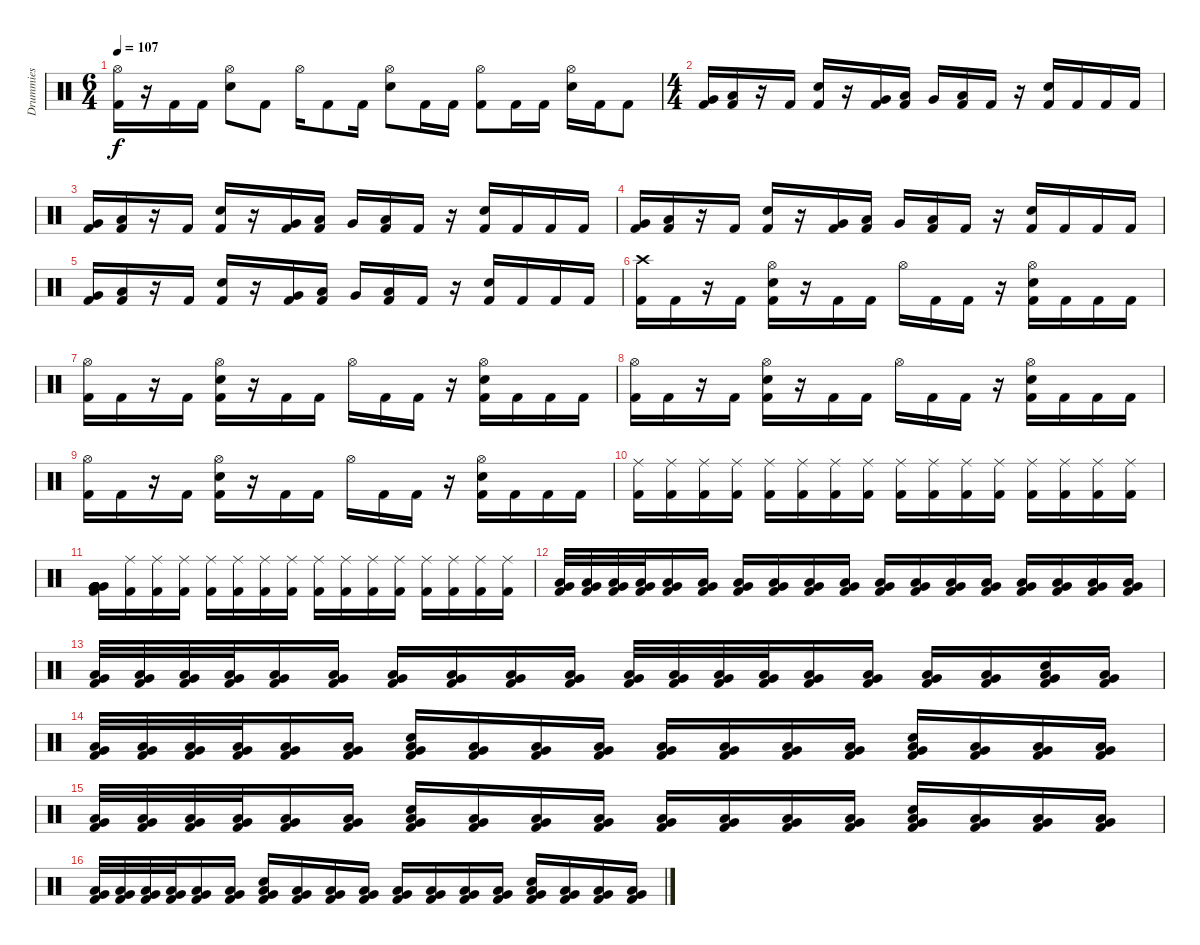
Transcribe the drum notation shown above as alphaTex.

\track ("Drummies" "Drummies") {instrument percussion}
\staff {score}
\articulation defaults
\ts (6 4)
\tempo 107
\clef neutral
\ks c
("Hi-Hat (open)" "Kick (hit) 2").16{dy f} r.16 "Kick (hit) 2".16 "Kick (hit) 2".16 ("Hi-Hat (open)" "Electric Snare (hit)").8 "Kick (hit) 2".8 "Hi-Hat (open)".16 "Kick (hit) 2".8 "Kick (hit) 2".16 ("Hi-Hat (open)" "Electric Snare (hit)").8 "Kick (hit) 2".16 "Kick (hit) 2".16 ("Hi-Hat (open)" "Kick (hit) 2").8 "Kick (hit) 2".16 "Kick (hit) 2".16 ("Hi-Hat (open)" "Electric Snare (hit)").16 "Kick (hit) 2".16 "Kick (hit) 2".8 |
\ts (4 4)
("Very Low Tom (hit)" "Kick (hit) 2").16 ("Low Tom (hit)" "Kick (hit) 2").16 r.16 "Kick (hit) 2".16 ("Electric Snare (hit)" "Kick (hit) 2").16 r.16 ("Very Low Tom (hit)" "Kick (hit) 2").16 ("Low Tom (hit)" "Kick (hit) 2").16 "Very Low Tom (hit)".16 ("Low Floor Tom (hit)" "Kick (hit) 2").16 "Kick (hit) 2".16 r.16 ("Electric Snare (hit)" "Kick (hit) 2").16 "Kick (hit) 2".16 "Kick (hit) 2".16 "Kick (hit) 2".16 |
("Very Low Tom (hit)" "Kick (hit) 2").16 ("Low Tom (hit)" "Kick (hit) 2").16 r.16 "Kick (hit) 2".16 ("Electric Snare (hit)" "Kick (hit) 2").16 r.16 ("Very Low Tom (hit)" "Kick (hit) 2").16 ("Low Tom (hit)" "Kick (hit) 2").16 "Very Low Tom (hit)".16 ("Low Floor Tom (hit)" "Kick (hit) 2").16 "Kick (hit) 2".16 r.16 ("Electric Snare (hit)" "Kick (hit) 2").16 "Kick (hit) 2".16 "Kick (hit) 2".16 "Kick (hit) 2".16 |
("Very Low Tom (hit)" "Kick (hit) 2").16 ("Low Tom (hit)" "Kick (hit) 2").16 r.16 "Kick (hit) 2".16 ("Electric Snare (hit)" "Kick (hit) 2").16 r.16 ("Very Low Tom (hit)" "Kick (hit) 2").16 ("Low Tom (hit)" "Kick (hit) 2").16 "Very Low Tom (hit)".16 ("Low Floor Tom (hit)" "Kick (hit) 2").16 "Kick (hit) 2".16 r.16 ("Electric Snare (hit)" "Kick (hit) 2").16 "Kick (hit) 2".16 "Kick (hit) 2".16 "Kick (hit) 2".16 |
("Very Low Tom (hit)" "Kick (hit) 2").16 ("Low Tom (hit)" "Kick (hit) 2").16 r.16 "Kick (hit) 2".16 ("Electric Snare (hit)" "Kick (hit) 2").16 r.16 ("Very Low Tom (hit)" "Kick (hit) 2").16 ("Low Tom (hit)" "Kick (hit) 2").16 "Very Low Tom (hit)".16 ("Low Floor Tom (hit)" "Kick (hit) 2").16 "Kick (hit) 2".16 r.16 ("Electric Snare (hit)" "Kick (hit) 2").16 "Kick (hit) 2".16 "Kick (hit) 2".16 "Kick (hit) 2".16 |
("Crash high (hit)" "Kick (hit) 2").16 "Kick (hit) 2".16 r.16 "Kick (hit) 2".16 ("Hi-Hat (open)" "Electric Snare (hit)" "Kick (hit) 2").16 r.16 "Kick (hit) 2".16 "Kick (hit) 2".16 "Hi-Hat (open)".16 "Kick (hit) 2".16 "Kick (hit) 2".16 r.16 ("Hi-Hat (open)" "Electric Snare (hit)" "Kick (hit) 2").16 "Kick (hit) 2".16 "Kick (hit) 2".16 "Kick (hit) 2".16 |
("Hi-Hat (open)" "Kick (hit) 2").16 "Kick (hit) 2".16 r.16 "Kick (hit) 2".16 ("Hi-Hat (open)" "Electric Snare (hit)" "Kick (hit) 2").16 r.16 "Kick (hit) 2".16 "Kick (hit) 2".16 "Hi-Hat (open)".16 "Kick (hit) 2".16 "Kick (hit) 2".16 r.16 ("Hi-Hat (open)" "Electric Snare (hit)" "Kick (hit) 2").16 "Kick (hit) 2".16 "Kick (hit) 2".16 "Kick (hit) 2".16 |
("Hi-Hat (open)" "Kick (hit) 2").16 "Kick (hit) 2".16 r.16 "Kick (hit) 2".16 ("Hi-Hat (open)" "Electric Snare (hit)" "Kick (hit) 2").16 r.16 "Kick (hit) 2".16 "Kick (hit) 2".16 "Hi-Hat (open)".16 "Kick (hit) 2".16 "Kick (hit) 2".16 r.16 ("Hi-Hat (open)" "Electric Snare (hit)" "Kick (hit) 2").16 "Kick (hit) 2".16 "Kick (hit) 2".16 "Kick (hit) 2".16 |
("Hi-Hat (open)" "Kick (hit) 2").16 "Kick (hit) 2".16 r.16 "Kick (hit) 2".16 ("Hi-Hat (open)" "Electric Snare (hit)" "Kick (hit) 2").16 r.16 "Kick (hit) 2".16 "Kick (hit) 2".16 "Hi-Hat (open)".16 "Kick (hit) 2".16 "Kick (hit) 2".16 r.16 ("Hi-Hat (open)" "Electric Snare (hit)" "Kick (hit) 2").16 "Kick (hit) 2".16 "Kick (hit) 2".16 "Kick (hit) 2".16 |
("Ride (middle)" "Kick (hit) 2").16 ("Ride (middle)" "Kick (hit) 2").16 ("Ride (middle)" "Kick (hit) 2").16 ("Ride (middle)" "Kick (hit) 2").16 ("Ride (middle)" "Kick (hit) 2").16 ("Ride (middle)" "Kick (hit) 2").16 ("Ride (middle)" "Kick (hit) 2").16 ("Ride (middle)" "Kick (hit) 2").16 ("Ride (middle)" "Kick (hit) 2").16 ("Ride (middle)" "Kick (hit) 2").16 ("Ride (middle)" "Kick (hit) 2").16 ("Ride (middle)" "Kick (hit) 2").16 ("Ride (middle)" "Kick (hit) 2").16 ("Ride (middle)" "Kick (hit) 2").16 ("Ride (middle)" "Kick (hit) 2").16 ("Ride (middle)" "Kick (hit) 2").16 |
("Very Low Tom (hit)" "Very Low Tom (hit)" "Very Low Tom (hit)" "Very Low Tom (hit)" "Very Low Tom (hit)" "Kick (hit) 2").16 ("Ride (middle)" "Kick (hit) 2").16 ("Ride (middle)" "Kick (hit) 2").16 ("Ride (middle)" "Kick (hit) 2").16 ("Ride (middle)" "Kick (hit) 2").16 ("Ride (middle)" "Kick (hit) 2").16 ("Ride (middle)" "Kick (hit) 2").16 ("Ride (middle)" "Kick (hit) 2").16 ("Ride (middle)" "Kick (hit) 2").16 ("Ride (middle)" "Kick (hit) 2").16 ("Ride (middle)" "Kick (hit) 2").16 ("Ride (middle)" "Kick (hit) 2").16 ("Ride (middle)" "Kick (hit) 2").16 ("Ride (middle)" "Kick (hit) 2").16 ("Ride (middle)" "Kick (hit) 2").16 ("Ride (middle)" "Kick (hit) 2").16 |
("Very Low Tom (hit)" "Low Floor Tom (hit)" "Kick (hit) 2").32 ("Very Low Tom (hit)" "Low Floor Tom (hit)" "Kick (hit) 2").32 ("Very Low Tom (hit)" "Low Floor Tom (hit)" "Kick (hit) 2").32 ("Very Low Tom (hit)" "Low Floor Tom (hit)" "Kick (hit) 2").32 ("Very Low Tom (hit)" "Low Floor Tom (hit)" "Kick (hit) 2").16 ("Very Low Tom (hit)" "Low Floor Tom (hit)" "Kick (hit) 2").16 ("Very Low Tom (hit)" "Low Floor Tom (hit)" "Kick (hit) 2").16 ("Very Low Tom (hit)" "Low Floor Tom (hit)" "Kick (hit) 2").16 ("Very Low Tom (hit)" "Low Floor Tom (hit)" "Kick (hit) 2").16 ("Very Low Tom (hit)" "Low Floor Tom (hit)" "Kick (hit) 2").16 ("Very Low Tom (hit)" "Low Floor Tom (hit)" "Kick (hit) 2").16 ("Very Low Tom (hit)" "Low Floor Tom (hit)" "Kick (hit) 2").16 ("Very Low Tom (hit)" "Low Floor Tom (hit)" "Kick (hit) 2").16 ("Very Low Tom (hit)" "Low Floor Tom (hit)" "Kick (hit) 2").16 ("Very Low Tom (hit)" "Low Floor Tom (hit)" "Kick (hit) 2").16 ("Very Low Tom (hit)" "Low Floor Tom (hit)" "Kick (hit) 2").16 ("Very Low Tom (hit)" "Low Floor Tom (hit)" "Kick (hit) 2").16 ("Very Low Tom (hit)" "Low Floor Tom (hit)" "Kick (hit) 2").16 |
("Very Low Tom (hit)" "Low Floor Tom (hit)" "Kick (hit) 2").32 ("Very Low Tom (hit)" "Low Floor Tom (hit)" "Kick (hit) 2").32 ("Very Low Tom (hit)" "Low Floor Tom (hit)" "Kick (hit) 2").32 ("Very Low Tom (hit)" "Low Floor Tom (hit)" "Kick (hit) 2").32 ("Very Low Tom (hit)" "Low Floor Tom (hit)" "Kick (hit) 2").16 ("Very Low Tom (hit)" "Low Floor Tom (hit)" "Kick (hit) 2").16 ("Very Low Tom (hit)" "Low Floor Tom (hit)" "Kick (hit) 2").16 ("Very Low Tom (hit)" "Low Floor Tom (hit)" "Kick (hit) 2").16 ("Very Low Tom (hit)" "Low Floor Tom (hit)" "Kick (hit) 2").16 ("Very Low Tom (hit)" "Low Floor Tom (hit)" "Kick (hit) 2").16 ("Very Low Tom (hit)" "Low Floor Tom (hit)" "Kick (hit) 2").32 ("Very Low Tom (hit)" "Low Floor Tom (hit)" "Kick (hit) 2").32 ("Very Low Tom (hit)" "Low Floor Tom (hit)" "Kick (hit) 2").32 ("Very Low Tom (hit)" "Low Floor Tom (hit)" "Kick (hit) 2").32 ("Very Low Tom (hit)" "Low Floor Tom (hit)" "Kick (hit) 2").16 ("Very Low Tom (hit)" "Low Floor Tom (hit)" "Kick (hit) 2").16 ("Very Low Tom (hit)" "Low Floor Tom (hit)" "Kick (hit) 2").16 ("Very Low Tom (hit)" "Low Floor Tom (hit)" "Kick (hit) 2").16 ("Electric Snare (hit)" "Very Low Tom (hit)" "Low Floor Tom (hit)" "Kick (hit) 2").16 ("Very Low Tom (hit)" "Low Floor Tom (hit)" "Kick (hit) 2").16 |
("Very Low Tom (hit)" "Low Floor Tom (hit)" "Kick (hit) 2").32 ("Very Low Tom (hit)" "Low Floor Tom (hit)" "Kick (hit) 2").32 ("Very Low Tom (hit)" "Low Floor Tom (hit)" "Kick (hit) 2").32 ("Very Low Tom (hit)" "Low Floor Tom (hit)" "Kick (hit) 2").32 ("Very Low Tom (hit)" "Low Floor Tom (hit)" "Kick (hit) 2").16 ("Very Low Tom (hit)" "Low Floor Tom (hit)" "Kick (hit) 2").16 ("Electric Snare (hit)" "Very Low Tom (hit)" "Low Floor Tom (hit)" "Kick (hit) 2").16 ("Very Low Tom (hit)" "Low Floor Tom (hit)" "Kick (hit) 2").16 ("Very Low Tom (hit)" "Low Floor Tom (hit)" "Kick (hit) 2").16 ("Very Low Tom (hit)" "Low Floor Tom (hit)" "Kick (hit) 2").16 ("Very Low Tom (hit)" "Low Floor Tom (hit)" "Kick (hit) 2").16 ("Very Low Tom (hit)" "Low Floor Tom (hit)" "Kick (hit) 2").16 ("Very Low Tom (hit)" "Low Floor Tom (hit)" "Kick (hit) 2").16 ("Very Low Tom (hit)" "Low Floor Tom (hit)" "Kick (hit) 2").16 ("Electric Snare (hit)" "Very Low Tom (hit)" "Low Floor Tom (hit)" "Kick (hit) 2").16 ("Very Low Tom (hit)" "Low Floor Tom (hit)" "Kick (hit) 2").16 ("Very Low Tom (hit)" "Low Floor Tom (hit)" "Kick (hit) 2").16 ("Very Low Tom (hit)" "Low Floor Tom (hit)" "Kick (hit) 2").16 |
("Very Low Tom (hit)" "Low Floor Tom (hit)" "Kick (hit) 2").32 ("Very Low Tom (hit)" "Low Floor Tom (hit)" "Kick (hit) 2").32 ("Very Low Tom (hit)" "Low Floor Tom (hit)" "Kick (hit) 2").32 ("Very Low Tom (hit)" "Low Floor Tom (hit)" "Kick (hit) 2").32 ("Very Low Tom (hit)" "Low Floor Tom (hit)" "Kick (hit) 2").16 ("Very Low Tom (hit)" "Low Floor Tom (hit)" "Kick (hit) 2").16 ("Electric Snare (hit)" "Very Low Tom (hit)" "Low Floor Tom (hit)" "Kick (hit) 2").16 ("Very Low Tom (hit)" "Low Floor Tom (hit)" "Kick (hit) 2").16 ("Very Low Tom (hit)" "Low Floor Tom (hit)" "Kick (hit) 2").16 ("Very Low Tom (hit)" "Low Floor Tom (hit)" "Kick (hit) 2").16 ("Very Low Tom (hit)" "Low Floor Tom (hit)" "Kick (hit) 2").16 ("Very Low Tom (hit)" "Low Floor Tom (hit)" "Kick (hit) 2").16 ("Very Low Tom (hit)" "Low Floor Tom (hit)" "Kick (hit) 2").16 ("Very Low Tom (hit)" "Low Floor Tom (hit)" "Kick (hit) 2").16 ("Electric Snare (hit)" "Very Low Tom (hit)" "Low Floor Tom (hit)" "Kick (hit) 2").16 ("Very Low Tom (hit)" "Low Floor Tom (hit)" "Kick (hit) 2").16 ("Very Low Tom (hit)" "Low Floor Tom (hit)" "Kick (hit) 2").16 ("Very Low Tom (hit)" "Low Floor Tom (hit)" "Kick (hit) 2").16 |
("Very Low Tom (hit)" "Low Floor Tom (hit)" "Kick (hit) 2").32 ("Very Low Tom (hit)" "Low Floor Tom (hit)" "Kick (hit) 2").32 ("Very Low Tom (hit)" "Low Floor Tom (hit)" "Kick (hit) 2").32 ("Very Low Tom (hit)" "Low Floor Tom (hit)" "Kick (hit) 2").32 ("Very Low Tom (hit)" "Low Floor Tom (hit)" "Kick (hit) 2").16 ("Very Low Tom (hit)" "Low Floor Tom (hit)" "Kick (hit) 2").16 ("Electric Snare (hit)" "Very Low Tom (hit)" "Low Floor Tom (hit)" "Kick (hit) 2").16 ("Very Low Tom (hit)" "Low Floor Tom (hit)" "Kick (hit) 2").16 ("Very Low Tom (hit)" "Low Floor Tom (hit)" "Kick (hit) 2").16 ("Very Low Tom (hit)" "Low Floor Tom (hit)" "Kick (hit) 2").16 ("Very Low Tom (hit)" "Low Floor Tom (hit)" "Kick (hit) 2").16 ("Very Low Tom (hit)" "Low Floor Tom (hit)" "Kick (hit) 2").16 ("Very Low Tom (hit)" "Low Floor Tom (hit)" "Kick (hit) 2").16 ("Very Low Tom (hit)" "Low Floor Tom (hit)" "Kick (hit) 2").16 ("Electric Snare (hit)" "Very Low Tom (hit)" "Low Floor Tom (hit)" "Kick (hit) 2").16 ("Very Low Tom (hit)" "Low Floor Tom (hit)" "Kick (hit) 2").16 ("Very Low Tom (hit)" "Low Floor Tom (hit)" "Kick (hit) 2").16 ("Very Low Tom (hit)" "Low Floor Tom (hit)" "Kick (hit) 2").16
